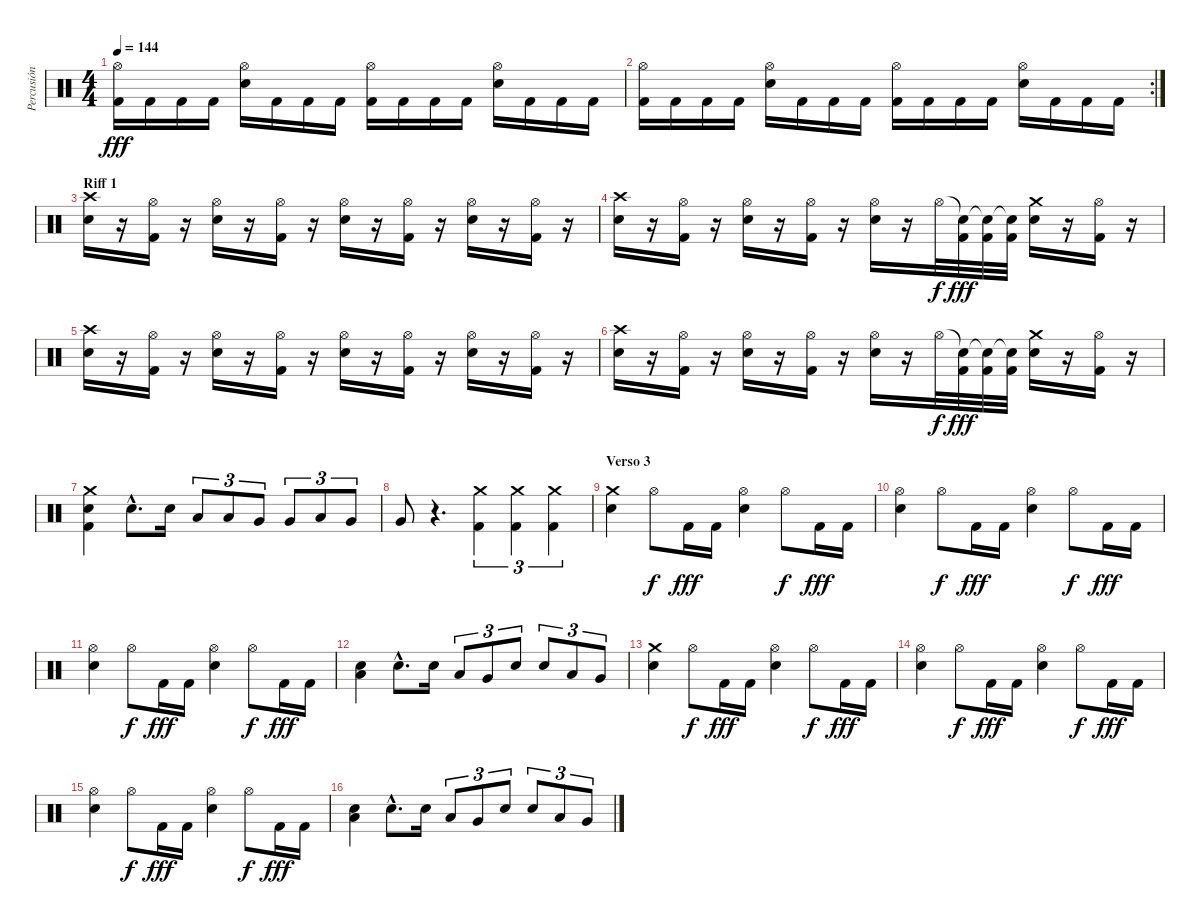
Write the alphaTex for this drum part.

\track ("Percusión" "Percusión") {instrument percussion}
\staff {score}
\articulation defaults
\ts (4 4)
\tempo 144
\clef neutral
\ks c
("Hi-Hat (open)" "Kick (hit) 2").16{dy fff} "Kick (hit) 2".16 "Kick (hit) 2".16 "Kick (hit) 2".16 ("Hi-Hat (open)" "Electric Snare (hit)").16 "Kick (hit) 2".16 "Kick (hit) 2".16 "Kick (hit) 2".16 ("Hi-Hat (open)" "Kick (hit) 2").16 "Kick (hit) 2".16 "Kick (hit) 2".16 "Kick (hit) 2".16 ("Hi-Hat (open)" "Electric Snare (hit)").16 "Kick (hit) 2".16 "Kick (hit) 2".16 "Kick (hit) 2".16 |
\rc 2
("Hi-Hat (open)" "Kick (hit) 2").16 "Kick (hit) 2".16 "Kick (hit) 2".16 "Kick (hit) 2".16 ("Hi-Hat (open)" "Electric Snare (hit)").16 "Kick (hit) 2".16 "Kick (hit) 2".16 "Kick (hit) 2".16 ("Hi-Hat (open)" "Kick (hit) 2").16 "Kick (hit) 2".16 "Kick (hit) 2".16 "Kick (hit) 2".16 ("Hi-Hat (open)" "Electric Snare (hit)").16 "Kick (hit) 2".16 "Kick (hit) 2".16 "Kick (hit) 2".16 |
\section ("" "Riff 1")
("Crash high (hit)" "Snare (hit) 2").16 r.16 ("Hi-Hat (open)" "Kick (hit) 2").16 r.16 ("Hi-Hat (open)" "Snare (hit) 2").16 r.16 ("Hi-Hat (open)" "Kick (hit) 2").16 r.16 ("Hi-Hat (open)" "Snare (hit) 2").16 r.16 ("Hi-Hat (open)" "Kick (hit) 2").16 r.16 ("Hi-Hat (open)" "Snare (hit) 2").16 r.16 ("Hi-Hat (open)" "Kick (hit) 2").16 r.16 |
("Crash high (hit)" "Snare (hit) 2").16 r.16 ("Hi-Hat (open)" "Kick (hit) 2").16 r.16 ("Hi-Hat (open)" "Snare (hit) 2").16 r.16 ("Hi-Hat (open)" "Kick (hit) 2").16 r.16 ("Hi-Hat (open)" "Snare (hit) 2").16 r.16 "Hi-Hat (open)".32{dy f} ("Snare (hit)"{t} "Kick (hit) 2").32{dy fff} ("Snare (hit)"{t} "Kick (hit) 2").32 ("Snare (hit)"{t} "Kick (hit) 2").32 ("Crash medium (hit)" "Snare (hit) 2").16 r.16 ("Hi-Hat (open)" "Kick (hit) 2").16 r.16 |
("Crash high (hit)" "Snare (hit) 2").16 r.16 ("Hi-Hat (open)" "Kick (hit) 2").16 r.16 ("Hi-Hat (open)" "Snare (hit) 2").16 r.16 ("Hi-Hat (open)" "Kick (hit) 2").16 r.16 ("Hi-Hat (open)" "Snare (hit) 2").16 r.16 ("Hi-Hat (open)" "Kick (hit) 2").16 r.16 ("Hi-Hat (open)" "Snare (hit) 2").16 r.16 ("Hi-Hat (open)" "Kick (hit) 2").16 r.16 |
("Crash high (hit)" "Snare (hit) 2").16 r.16 ("Hi-Hat (open)" "Kick (hit) 2").16 r.16 ("Hi-Hat (open)" "Snare (hit) 2").16 r.16 ("Hi-Hat (open)" "Kick (hit) 2").16 r.16 ("Hi-Hat (open)" "Snare (hit) 2").16 r.16 "Hi-Hat (open)".32{dy f} ("Snare (hit)"{t} "Kick (hit) 2").32{dy fff} ("Snare (hit)"{t} "Kick (hit) 2").32 ("Snare (hit)"{t} "Kick (hit) 2").32 ("Crash medium (hit)" "Snare (hit) 2").16 r.16 ("Hi-Hat (open)" "Kick (hit) 2").16 r.16 |
("Crash medium (hit)" "Snare (hit) 2" "Kick (hit) 2").4 "Snare (hit) 2"{hac}.8{d} "Snare (hit) 2".16 "Low Tom (hit)".8{tu (3 2)} "Low Tom (hit)".8{tu (3 2)} "Very Low Tom (hit)".8{tu (3 2)} "Very Low Tom (hit)".8{tu (3 2)} "Low Tom (hit)".8{tu (3 2)} "Very Low Tom (hit)".8{tu (3 2)} |
"Very Low Tom (hit)".8 r.4{d} ("Crash medium (hit)" "Kick (hit) 2").4{tu (3 2)} ("Crash medium (hit)" "Kick (hit) 2").4{tu (3 2)} ("Crash medium (hit)" "Kick (hit) 2").4{tu (3 2)} |
\section ("" "Verso 3")
("Crash medium (hit)" "Snare (hit) 2").4 "Hi-Hat (open)".8{dy f} "Kick (hit) 2".16{dy fff} "Kick (hit) 2".16 ("Hi-Hat (open)" "Snare (hit) 2").4 "Hi-Hat (open)".8{dy f} "Kick (hit) 2".16{dy fff} "Kick (hit) 2".16 |
("Hi-Hat (open)" "Snare (hit) 2").4 "Hi-Hat (open)".8{dy f} "Kick (hit) 2".16{dy fff} "Kick (hit) 2".16 ("Hi-Hat (open)" "Snare (hit) 2").4 "Hi-Hat (open)".8{dy f} "Kick (hit) 2".16{dy fff} "Kick (hit) 2".16 |
("Hi-Hat (open)" "Snare (hit) 2").4 "Hi-Hat (open)".8{dy f} "Kick (hit) 2".16{dy fff} "Kick (hit) 2".16 ("Hi-Hat (open)" "Snare (hit) 2").4 "Hi-Hat (open)".8{dy f} "Kick (hit) 2".16{dy fff} "Kick (hit) 2".16 |
("Low Tom (hit)" "Snare (hit) 2").4 "Snare (hit) 2"{hac}.8{d} "Snare (hit) 2".16 "Low Tom (hit)".8{tu (3 2)} "Very Low Tom (hit)".8{tu (3 2)} "Snare (hit) 2".8{tu (3 2)} "Snare (hit) 2".8{tu (3 2)} "Low Tom (hit)".8{tu (3 2)} "Very Low Tom (hit)".8{tu (3 2)} |
("Crash medium (hit)" "Snare (hit) 2").4 "Hi-Hat (open)".8{dy f} "Kick (hit) 2".16{dy fff} "Kick (hit) 2".16 ("Hi-Hat (open)" "Snare (hit) 2").4 "Hi-Hat (open)".8{dy f} "Kick (hit) 2".16{dy fff} "Kick (hit) 2".16 |
("Hi-Hat (open)" "Snare (hit) 2").4 "Hi-Hat (open)".8{dy f} "Kick (hit) 2".16{dy fff} "Kick (hit) 2".16 ("Hi-Hat (open)" "Snare (hit) 2").4 "Hi-Hat (open)".8{dy f} "Kick (hit) 2".16{dy fff} "Kick (hit) 2".16 |
("Hi-Hat (open)" "Snare (hit) 2").4 "Hi-Hat (open)".8{dy f} "Kick (hit) 2".16{dy fff} "Kick (hit) 2".16 ("Hi-Hat (open)" "Snare (hit) 2").4 "Hi-Hat (open)".8{dy f} "Kick (hit) 2".16{dy fff} "Kick (hit) 2".16 |
("Low Tom (hit)" "Snare (hit) 2").4 "Snare (hit) 2"{hac}.8{d} "Snare (hit) 2".16 "Low Tom (hit)".8{tu (3 2)} "Very Low Tom (hit)".8{tu (3 2)} "Snare (hit) 2".8{tu (3 2)} "Snare (hit) 2".8{tu (3 2)} "Low Tom (hit)".8{tu (3 2)} "Very Low Tom (hit)".8{tu (3 2)}
